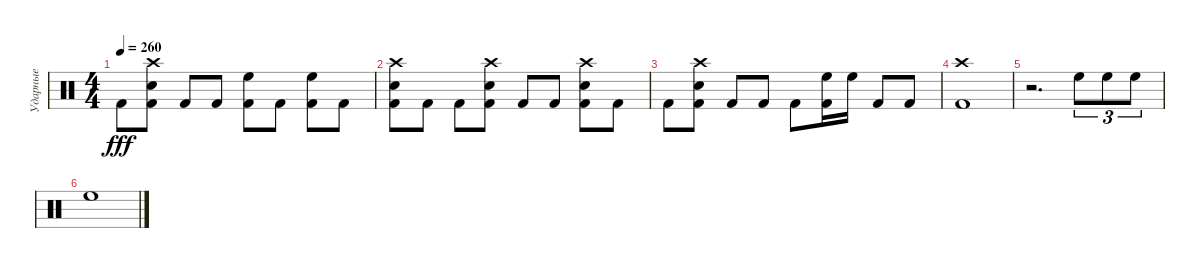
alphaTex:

\track ("Ударные" "Ударные") {instrument percussion}
\staff {score}
\articulation defaults
\ts (4 4)
\tempo 260
\clef neutral
\ks c "Kick (hit) 2".8{dy fff}
("Kick (hit) 2" "Snare (hit) 2" "Crash high (hit)").8 "Kick (hit) 2".8 "Kick (hit) 2".8 ("Kick (hit) 2" "High Floor Tom (hit)").8 "Kick (hit) 2".8 ("Kick (hit) 2" "High Floor Tom (hit)").8 "Kick (hit) 2".8 |
("Kick (hit) 2" "Snare (hit) 2" "Crash high (hit)").8 "Kick (hit) 2".8 "Kick (hit) 2".8 ("Kick (hit) 2" "Snare (hit) 2" "Crash high (hit)").8 "Kick (hit) 2".8 "Kick (hit) 2".8 ("Kick (hit) 2" "Snare (hit) 2" "Crash high (hit)").8 "Kick (hit) 2".8 |
"Kick (hit) 2".8 ("Kick (hit) 2" "Snare (hit) 2" "Crash high (hit)").8 "Kick (hit) 2".8 "Kick (hit) 2".8 "Kick (hit) 2".8 ("Kick (hit) 2" "High Floor Tom (hit)").16 "High Floor Tom (hit)".16 "Kick (hit) 2".8 "Kick (hit) 2".8 |
("Kick (hit) 2" "Crash high (hit)").1 |
r.2{d} "High Floor Tom (hit)".8{tu (3 2)} "High Floor Tom (hit)".8{tu (3 2)} "High Floor Tom (hit)".8{tu (3 2)} |
"High Floor Tom (hit)".1
